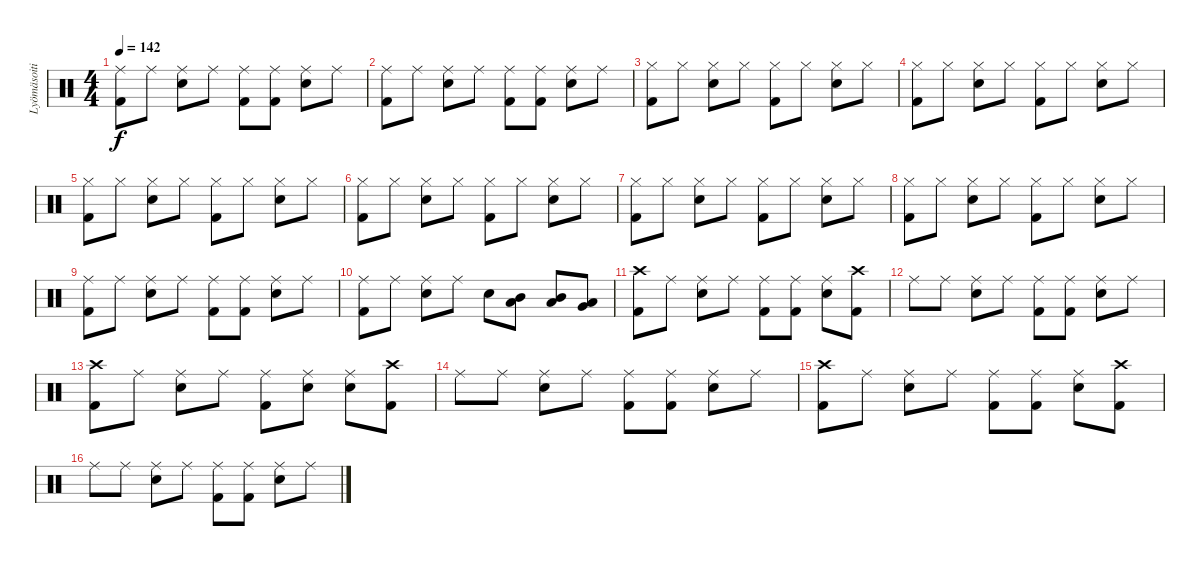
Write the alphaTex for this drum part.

\track ("Lyömäsoitin" "Lyömäsoiti") {instrument percussion}
\staff {score}
\articulation defaults
\ts (4 4)
\tempo 142
\clef neutral
\ks c
("Ride (middle)" "Kick (hit) 2").8{dy f} "Ride (middle)".8 ("Ride (middle)" "Electric Snare (hit)").8 "Ride (middle)".8 ("Ride (middle)" "Kick (hit) 2").8 ("Ride (middle)" "Kick (hit) 2").8 ("Ride (middle)" "Electric Snare (hit)").8 "Ride (middle)".8 |
("Ride (middle)" "Kick (hit) 2").8 "Ride (middle)".8 ("Ride (middle)" "Electric Snare (hit)").8 "Ride (middle)".8 ("Ride (middle)" "Kick (hit) 2").8 ("Ride (middle)" "Kick (hit) 2").8 ("Ride (middle)" "Electric Snare (hit)").8 "Ride (middle)".8 |
("Hi-Hat (closed)" "Kick (hit) 2").8 "Hi-Hat (closed)".8 ("Hi-Hat (closed)" "Electric Snare (hit)").8 "Hi-Hat (closed)".8 ("Hi-Hat (closed)" "Kick (hit) 2").8 "Hi-Hat (closed)".8 ("Hi-Hat (closed)" "Electric Snare (hit)").8 "Hi-Hat (closed)".8 |
("Hi-Hat (closed)" "Kick (hit) 2").8 "Hi-Hat (closed)".8 ("Hi-Hat (closed)" "Electric Snare (hit)").8 "Hi-Hat (closed)".8 ("Hi-Hat (closed)" "Kick (hit) 2").8 "Hi-Hat (closed)".8 ("Hi-Hat (closed)" "Electric Snare (hit)").8 "Hi-Hat (closed)".8 |
("Hi-Hat (closed)" "Kick (hit) 2").8 "Hi-Hat (closed)".8 ("Hi-Hat (closed)" "Electric Snare (hit)").8 "Hi-Hat (closed)".8 ("Hi-Hat (closed)" "Kick (hit) 2").8 "Hi-Hat (closed)".8 ("Hi-Hat (closed)" "Electric Snare (hit)").8 "Hi-Hat (closed)".8 |
("Hi-Hat (closed)" "Kick (hit) 2").8 "Hi-Hat (closed)".8 ("Hi-Hat (closed)" "Electric Snare (hit)").8 "Hi-Hat (closed)".8 ("Hi-Hat (closed)" "Kick (hit) 2").8 "Hi-Hat (closed)".8 ("Hi-Hat (closed)" "Electric Snare (hit)").8 "Hi-Hat (closed)".8 |
("Hi-Hat (closed)" "Kick (hit) 2").8 "Hi-Hat (closed)".8 ("Hi-Hat (closed)" "Electric Snare (hit)").8 "Hi-Hat (closed)".8 ("Hi-Hat (closed)" "Kick (hit) 2").8 "Hi-Hat (closed)".8 ("Hi-Hat (closed)" "Electric Snare (hit)").8 "Hi-Hat (closed)".8 |
("Hi-Hat (closed)" "Kick (hit) 2").8 "Hi-Hat (closed)".8 ("Hi-Hat (closed)" "Electric Snare (hit)").8 "Hi-Hat (closed)".8 ("Hi-Hat (closed)" "Kick (hit) 2").8 "Hi-Hat (closed)".8 ("Hi-Hat (closed)" "Electric Snare (hit)").8 "Hi-Hat (closed)".8 |
("Ride (middle)" "Kick (hit) 2").8 "Ride (middle)".8 ("Ride (middle)" "Electric Snare (hit)").8 "Ride (middle)".8 ("Ride (middle)" "Kick (hit) 2").8 ("Ride (middle)" "Kick (hit) 2").8 ("Ride (middle)" "Electric Snare (hit)").8 "Ride (middle)".8 |
("Ride (middle)" "Kick (hit) 2").8 "Ride (middle)".8 ("Ride (middle)" "Electric Snare (hit)").8 "Ride (middle)".8 "Electric Snare (hit)".8 ("Low Tom (hit)" "Mid Tom (hit)").8 ("Low Tom (hit)" "Mid Tom (hit)").8 ("Very Low Tom (hit)" "Low Tom (hit)").8 |
("Crash high (hit)" "Kick (hit) 2").8 "Ride (middle)".8 ("Ride (middle)" "Electric Snare (hit)").8 "Ride (middle)".8 ("Ride (middle)" "Kick (hit) 2").8 ("Ride (middle)" "Kick (hit) 2").8 ("Ride (middle)" "Electric Snare (hit)").8 ("Crash high (hit)" "Kick (hit) 2").8 |
"Ride (middle)".8 "Ride (middle)".8 ("Ride (middle)" "Electric Snare (hit)").8 "Ride (middle)".8 ("Ride (middle)" "Kick (hit) 2").8 ("Ride (middle)" "Kick (hit) 2").8 ("Ride (middle)" "Electric Snare (hit)").8 "Ride (middle)".8 |
("Crash high (hit)" "Kick (hit) 2").8 "Ride (middle)".8 ("Ride (middle)" "Electric Snare (hit)").8 "Ride (middle)".8 ("Ride (middle)" "Kick (hit) 2").8 ("Ride (middle)" "Electric Snare (hit)").8 ("Ride (middle)" "Electric Snare (hit)").8 ("Crash high (hit)" "Kick (hit) 2").8 |
"Ride (middle)".8 "Ride (middle)".8 ("Ride (middle)" "Electric Snare (hit)").8 "Ride (middle)".8 ("Ride (middle)" "Kick (hit) 2").8 ("Ride (middle)" "Kick (hit) 2").8 ("Ride (middle)" "Electric Snare (hit)").8 "Ride (middle)".8 |
("Crash high (hit)" "Kick (hit) 2").8 "Ride (middle)".8 ("Ride (middle)" "Electric Snare (hit)").8 "Ride (middle)".8 ("Ride (middle)" "Kick (hit) 2").8 ("Ride (middle)" "Kick (hit) 2").8 ("Ride (middle)" "Electric Snare (hit)").8 ("Crash high (hit)" "Kick (hit) 2").8 |
"Ride (middle)".8 "Ride (middle)".8 ("Ride (middle)" "Electric Snare (hit)").8 "Ride (middle)".8 ("Ride (middle)" "Kick (hit) 2").8 ("Ride (middle)" "Kick (hit) 2").8 ("Ride (middle)" "Electric Snare (hit)").8 "Ride (middle)".8
